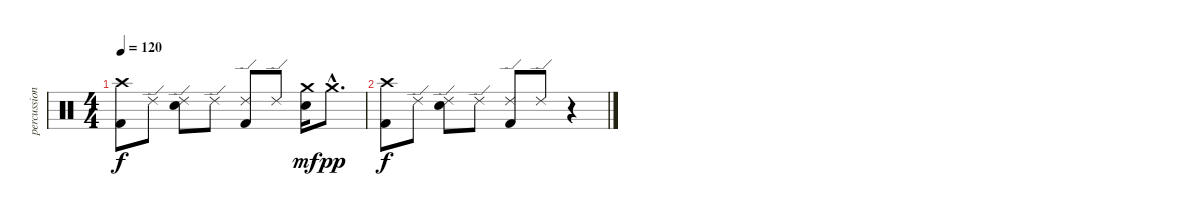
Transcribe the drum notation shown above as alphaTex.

\track ("percussion" "percussion") {instrument percussion}
\staff {score}
\articulation defaults
\ts (4 4)
\tempo 120
\clef neutral
\ks c
("Crash high (hit)" "Kick (hit) 2").8{dy f} "Ride (edge) 2".8 ("Ride (edge) 2" "Electric Snare (hit)").8 "Ride (edge) 2".8 ("Ride (edge) 2" "Kick (hit) 2").8 "Ride (edge) 2".8 ("Crash medium (hit)" "Electric Snare (hit)").16{dy mf} "Crash medium (hit)"{hac}.8{d dy pp} |
("Crash high (hit)" "Kick (hit) 2").8{dy f} "Ride (edge) 2".8 ("Ride (edge) 2" "Electric Snare (hit)").8 "Ride (edge) 2".8 ("Ride (edge) 2" "Kick (hit) 2").8 "Ride (edge) 2".8 r.4
